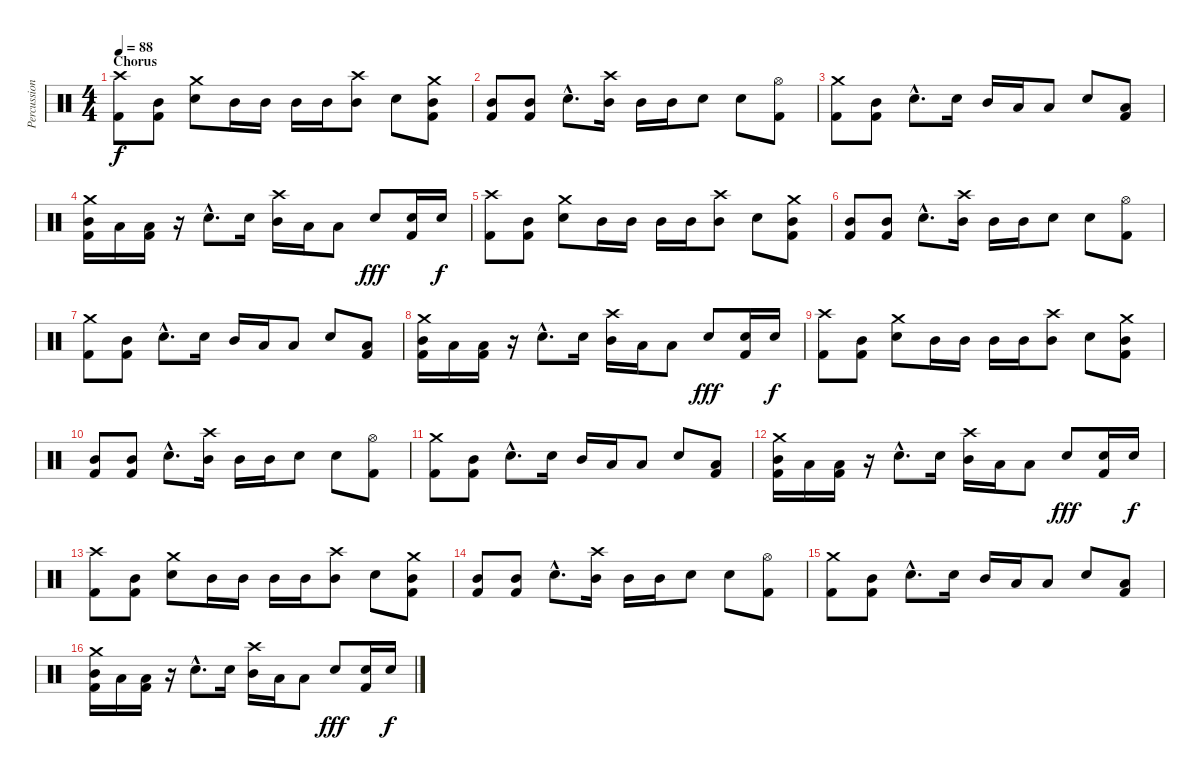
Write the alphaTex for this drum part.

\track ("Percussion" "Percussion") {instrument percussion}
\staff {score}
\articulation defaults
\ts (4 4)
\section ("" "Chorus")
\tempo 88
\clef neutral
\ks c
("Crash high (hit)" "Kick (hit) 2").8{dy f} ("Mid Tom (hit)" "Kick (hit) 2").8 ("Crash medium (hit)" "Snare (hit) 2").8 "Mid Tom (hit)".16 "Mid Tom (hit)".16 "Mid Tom (hit)".16 "Mid Tom (hit)".16 ("Crash high (hit)" "Mid Tom (hit)").8 "Snare (hit) 2".8 ("Crash medium (hit)" "Mid Tom (hit)" "Kick (hit) 2").8 |
("Mid Tom (hit)" "Kick (hit) 2").8 ("Mid Tom (hit)" "Kick (hit) 2").8 "Snare (hit) 2"{hac}.8{d} ("Crash high (hit)" "Mid Tom (hit)").16 "Mid Tom (hit)".16 "Mid Tom (hit)".16 "Snare (hit) 2".8 "Snare (hit) 2".8 ("Hi-Hat (open)" "Kick (hit) 2").8 |
("Crash medium (hit)" "Kick (hit) 2").8 ("Mid Tom (hit)" "Kick (hit) 2").8 "Snare (hit) 2"{hac}.8{d} "Snare (hit) 2".16 "Mid Tom (hit)".16 "Low Tom (hit)".16 "Low Tom (hit)".8 "Snare (hit) 2".8 ("Low Tom (hit)" "Kick (hit) 2").8 |
("Crash medium (hit)" "Mid Tom (hit)" "Kick (hit) 2").16 "Low Tom (hit)".16 ("Low Tom (hit)" "Kick (hit) 2").16 r.16 "Snare (hit) 2"{hac}.8{d} "Snare (hit) 2".16 ("Crash high (hit)" "Mid Tom (hit)").16 "Low Tom (hit)".16 "Low Tom (hit)".8 "Snare (hit) 2".8{dy fff} ("Snare (hit) 2" "Kick (hit) 2").16 "Snare (hit) 2".16{dy f} |
("Crash high (hit)" "Kick (hit) 2").8 ("Mid Tom (hit)" "Kick (hit) 2").8 ("Crash medium (hit)" "Snare (hit) 2").8 "Mid Tom (hit)".16 "Mid Tom (hit)".16 "Mid Tom (hit)".16 "Mid Tom (hit)".16 ("Crash high (hit)" "Mid Tom (hit)").8 "Snare (hit) 2".8 ("Crash medium (hit)" "Mid Tom (hit)" "Kick (hit) 2").8 |
("Mid Tom (hit)" "Kick (hit) 2").8 ("Mid Tom (hit)" "Kick (hit) 2").8 "Snare (hit) 2"{hac}.8{d} ("Crash high (hit)" "Mid Tom (hit)").16 "Mid Tom (hit)".16 "Mid Tom (hit)".16 "Snare (hit) 2".8 "Snare (hit) 2".8 ("Hi-Hat (open)" "Kick (hit) 2").8 |
("Crash medium (hit)" "Kick (hit) 2").8 ("Mid Tom (hit)" "Kick (hit) 2").8 "Snare (hit) 2"{hac}.8{d} "Snare (hit) 2".16 "Mid Tom (hit)".16 "Low Tom (hit)".16 "Low Tom (hit)".8 "Snare (hit) 2".8 ("Low Tom (hit)" "Kick (hit) 2").8 |
("Crash medium (hit)" "Mid Tom (hit)" "Kick (hit) 2").16 "Low Tom (hit)".16 ("Low Tom (hit)" "Kick (hit) 2").16 r.16 "Snare (hit) 2"{hac}.8{d} "Snare (hit) 2".16 ("Crash high (hit)" "Mid Tom (hit)").16 "Low Tom (hit)".16 "Low Tom (hit)".8 "Snare (hit) 2".8{dy fff} ("Snare (hit) 2" "Kick (hit) 2").16 "Snare (hit) 2".16{dy f} |
("Crash high (hit)" "Kick (hit) 2").8 ("Mid Tom (hit)" "Kick (hit) 2").8 ("Crash medium (hit)" "Snare (hit) 2").8 "Mid Tom (hit)".16 "Mid Tom (hit)".16 "Mid Tom (hit)".16 "Mid Tom (hit)".16 ("Crash high (hit)" "Mid Tom (hit)").8 "Snare (hit) 2".8 ("Crash medium (hit)" "Mid Tom (hit)" "Kick (hit) 2").8 |
("Mid Tom (hit)" "Kick (hit) 2").8 ("Mid Tom (hit)" "Kick (hit) 2").8 "Snare (hit) 2"{hac}.8{d} ("Crash high (hit)" "Mid Tom (hit)").16 "Mid Tom (hit)".16 "Mid Tom (hit)".16 "Snare (hit) 2".8 "Snare (hit) 2".8 ("Hi-Hat (open)" "Kick (hit) 2").8 |
("Crash medium (hit)" "Kick (hit) 2").8 ("Mid Tom (hit)" "Kick (hit) 2").8 "Snare (hit) 2"{hac}.8{d} "Snare (hit) 2".16 "Mid Tom (hit)".16 "Low Tom (hit)".16 "Low Tom (hit)".8 "Snare (hit) 2".8 ("Low Tom (hit)" "Kick (hit) 2").8 |
("Crash medium (hit)" "Mid Tom (hit)" "Kick (hit) 2").16 "Low Tom (hit)".16 ("Low Tom (hit)" "Kick (hit) 2").16 r.16 "Snare (hit) 2"{hac}.8{d} "Snare (hit) 2".16 ("Crash high (hit)" "Mid Tom (hit)").16 "Low Tom (hit)".16 "Low Tom (hit)".8 "Snare (hit) 2".8{dy fff} ("Snare (hit) 2" "Kick (hit) 2").16 "Snare (hit) 2".16{dy f} |
("Crash high (hit)" "Kick (hit) 2").8 ("Mid Tom (hit)" "Kick (hit) 2").8 ("Crash medium (hit)" "Snare (hit) 2").8 "Mid Tom (hit)".16 "Mid Tom (hit)".16 "Mid Tom (hit)".16 "Mid Tom (hit)".16 ("Crash high (hit)" "Mid Tom (hit)").8 "Snare (hit) 2".8 ("Crash medium (hit)" "Mid Tom (hit)" "Kick (hit) 2").8 |
("Mid Tom (hit)" "Kick (hit) 2").8 ("Mid Tom (hit)" "Kick (hit) 2").8 "Snare (hit) 2"{hac}.8{d} ("Crash high (hit)" "Mid Tom (hit)").16 "Mid Tom (hit)".16 "Mid Tom (hit)".16 "Snare (hit) 2".8 "Snare (hit) 2".8 ("Hi-Hat (open)" "Kick (hit) 2").8 |
("Crash medium (hit)" "Kick (hit) 2").8 ("Mid Tom (hit)" "Kick (hit) 2").8 "Snare (hit) 2"{hac}.8{d} "Snare (hit) 2".16 "Mid Tom (hit)".16 "Low Tom (hit)".16 "Low Tom (hit)".8 "Snare (hit) 2".8 ("Low Tom (hit)" "Kick (hit) 2").8 |
("Crash medium (hit)" "Mid Tom (hit)" "Kick (hit) 2").16 "Low Tom (hit)".16 ("Low Tom (hit)" "Kick (hit) 2").16 r.16 "Snare (hit) 2"{hac}.8{d} "Snare (hit) 2".16 ("Crash high (hit)" "Mid Tom (hit)").16 "Low Tom (hit)".16 "Low Tom (hit)".8 "Snare (hit) 2".8{dy fff} ("Snare (hit) 2" "Kick (hit) 2").16 "Snare (hit) 2".16{dy f}
